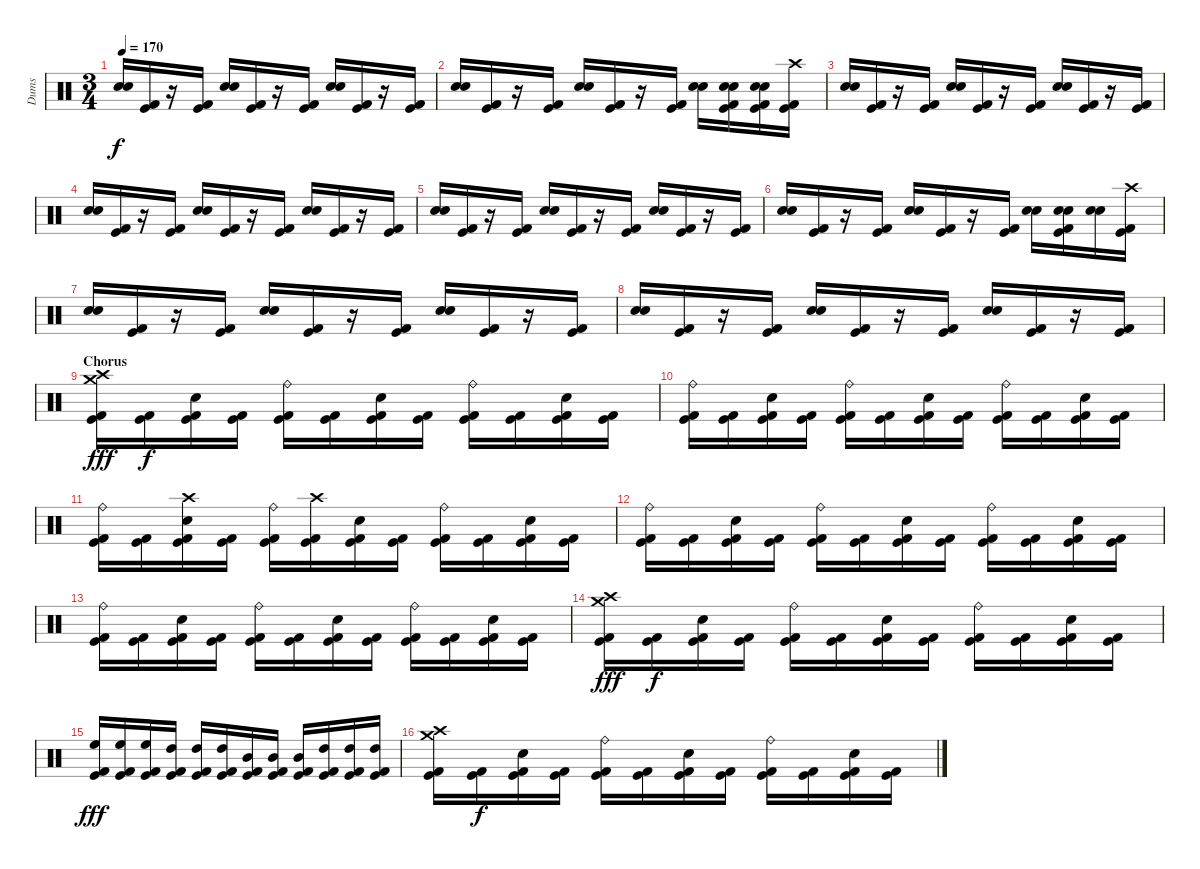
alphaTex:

\track ("Dums" "Dums") {instrument percussion}
\staff {score}
\articulation defaults
\ts (3 4)
\tempo 170
\clef neutral
\ks c
("Snare (hit) 2" "Electric Snare (hit)").16{dy f} ("Kick (hit)" "Kick (hit) 2").16 r.16 ("Kick (hit)" "Kick (hit) 2").16 ("Snare (hit) 2" "Electric Snare (hit)").16 ("Kick (hit)" "Kick (hit) 2").16 r.16 ("Kick (hit)" "Kick (hit) 2").16 ("Snare (hit) 2" "Electric Snare (hit)").16 ("Kick (hit)" "Kick (hit) 2").16 r.16 ("Kick (hit)" "Kick (hit) 2").16 |
("Snare (hit) 2" "Electric Snare (hit)").16 ("Kick (hit)" "Kick (hit) 2").16 r.16 ("Kick (hit)" "Kick (hit) 2").16 ("Snare (hit) 2" "Electric Snare (hit)").16 ("Kick (hit)" "Kick (hit) 2").16 r.16 ("Kick (hit)" "Kick (hit) 2").16 ("Snare (hit) 2" "Electric Snare (hit)").16 ("Snare (hit) 2" "Electric Snare (hit)" "Kick (hit)" "Kick (hit) 2").16 ("Snare (hit) 2" "Electric Snare (hit)" "Kick (hit)" "Kick (hit) 2").16 ("Crash high (hit)" "Kick (hit)" "Kick (hit) 2").16 |
("Snare (hit) 2" "Electric Snare (hit)").16 ("Kick (hit)" "Kick (hit) 2").16 r.16 ("Kick (hit)" "Kick (hit) 2").16 ("Snare (hit) 2" "Electric Snare (hit)").16 ("Kick (hit)" "Kick (hit) 2").16 r.16 ("Kick (hit)" "Kick (hit) 2").16 ("Snare (hit) 2" "Electric Snare (hit)").16 ("Kick (hit)" "Kick (hit) 2").16 r.16 ("Kick (hit)" "Kick (hit) 2").16 |
("Snare (hit) 2" "Electric Snare (hit)").16 ("Kick (hit)" "Kick (hit) 2").16 r.16 ("Kick (hit)" "Kick (hit) 2").16 ("Snare (hit) 2" "Electric Snare (hit)").16 ("Kick (hit)" "Kick (hit) 2").16 r.16 ("Kick (hit)" "Kick (hit) 2").16 ("Snare (hit) 2" "Electric Snare (hit)").16 ("Kick (hit)" "Kick (hit) 2").16 r.16 ("Kick (hit)" "Kick (hit) 2").16 |
("Snare (hit) 2" "Electric Snare (hit)").16 ("Kick (hit)" "Kick (hit) 2").16 r.16 ("Kick (hit)" "Kick (hit) 2").16 ("Snare (hit) 2" "Electric Snare (hit)").16 ("Kick (hit)" "Kick (hit) 2").16 r.16 ("Kick (hit)" "Kick (hit) 2").16 ("Snare (hit) 2" "Electric Snare (hit)").16 ("Kick (hit)" "Kick (hit) 2").16 r.16 ("Kick (hit)" "Kick (hit) 2").16 |
("Snare (hit) 2" "Electric Snare (hit)").16 ("Kick (hit)" "Kick (hit) 2").16 r.16 ("Kick (hit)" "Kick (hit) 2").16 ("Snare (hit) 2" "Electric Snare (hit)").16 ("Kick (hit)" "Kick (hit) 2").16 r.16 ("Kick (hit)" "Kick (hit) 2").16 ("Snare (hit) 2" "Electric Snare (hit)").16 ("Snare (hit) 2" "Electric Snare (hit)" "Kick (hit)" "Kick (hit) 2").16 ("Snare (hit) 2" "Electric Snare (hit)").16 ("Crash high (hit)" "Kick (hit)" "Kick (hit) 2").16 |
("Snare (hit) 2" "Electric Snare (hit)").16 ("Kick (hit)" "Kick (hit) 2").16 r.16 ("Kick (hit)" "Kick (hit) 2").16 ("Snare (hit) 2" "Electric Snare (hit)").16 ("Kick (hit)" "Kick (hit) 2").16 r.16 ("Kick (hit)" "Kick (hit) 2").16 ("Snare (hit) 2" "Electric Snare (hit)").16 ("Kick (hit)" "Kick (hit) 2").16 r.16 ("Kick (hit)" "Kick (hit) 2").16 |
("Snare (hit) 2" "Electric Snare (hit)").16 ("Kick (hit)" "Kick (hit) 2").16 r.16 ("Kick (hit)" "Kick (hit) 2").16 ("Snare (hit) 2" "Electric Snare (hit)").16 ("Kick (hit)" "Kick (hit) 2").16 r.16 ("Kick (hit)" "Kick (hit) 2").16 ("Snare (hit) 2" "Electric Snare (hit)").16 ("Kick (hit)" "Kick (hit) 2").16 r.16 ("Kick (hit)" "Kick (hit) 2").16 |
\section ("" "Chorus")
("Crash high (hit)" "Crash medium (hit)" "Kick (hit)" "Kick (hit) 2").16{dy fff} ("Kick (hit)" "Kick (hit) 2").16{dy f} ("Electric Snare (hit)" "Kick (hit)" "Kick (hit) 2").16 ("Kick (hit)" "Kick (hit) 2").16 ("Ride (bell)" "Kick (hit)" "Kick (hit) 2").16 ("Kick (hit)" "Kick (hit) 2").16 ("Electric Snare (hit)" "Kick (hit)" "Kick (hit) 2").16 ("Kick (hit)" "Kick (hit) 2").16 ("Ride (bell)" "Kick (hit)" "Kick (hit) 2").16 ("Kick (hit)" "Kick (hit) 2").16 ("Electric Snare (hit)" "Kick (hit)" "Kick (hit) 2").16 ("Kick (hit)" "Kick (hit) 2").16 |
("Ride (bell)" "Kick (hit)" "Kick (hit) 2").16 ("Kick (hit)" "Kick (hit) 2").16 ("Electric Snare (hit)" "Kick (hit)" "Kick (hit) 2").16 ("Kick (hit)" "Kick (hit) 2").16 ("Ride (bell)" "Kick (hit)" "Kick (hit) 2").16 ("Kick (hit)" "Kick (hit) 2").16 ("Electric Snare (hit)" "Kick (hit)" "Kick (hit) 2").16 ("Kick (hit)" "Kick (hit) 2").16 ("Ride (bell)" "Kick (hit)" "Kick (hit) 2").16 ("Kick (hit)" "Kick (hit) 2").16 ("Electric Snare (hit)" "Kick (hit)" "Kick (hit) 2").16 ("Kick (hit)" "Kick (hit) 2").16 |
("Ride (bell)" "Kick (hit)" "Kick (hit) 2").16 ("Kick (hit)" "Kick (hit) 2").16 ("Crash high (hit)" "Electric Snare (hit)" "Kick (hit)" "Kick (hit) 2").16 ("Kick (hit)" "Kick (hit) 2").16 ("Ride (bell)" "Kick (hit)" "Kick (hit) 2").16 ("Crash high (hit)" "Kick (hit)" "Kick (hit) 2").16 ("Electric Snare (hit)" "Kick (hit)" "Kick (hit) 2").16 ("Kick (hit)" "Kick (hit) 2").16 ("Ride (bell)" "Kick (hit)" "Kick (hit) 2").16 ("Kick (hit)" "Kick (hit) 2").16 ("Electric Snare (hit)" "Kick (hit)" "Kick (hit) 2").16 ("Kick (hit)" "Kick (hit) 2").16 |
("Ride (bell)" "Kick (hit)" "Kick (hit) 2").16 ("Kick (hit)" "Kick (hit) 2").16 ("Electric Snare (hit)" "Kick (hit)" "Kick (hit) 2").16 ("Kick (hit)" "Kick (hit) 2").16 ("Ride (bell)" "Kick (hit)" "Kick (hit) 2").16 ("Kick (hit)" "Kick (hit) 2").16 ("Electric Snare (hit)" "Kick (hit)" "Kick (hit) 2").16 ("Kick (hit)" "Kick (hit) 2").16 ("Ride (bell)" "Kick (hit)" "Kick (hit) 2").16 ("Kick (hit)" "Kick (hit) 2").16 ("Electric Snare (hit)" "Kick (hit)" "Kick (hit) 2").16 ("Kick (hit)" "Kick (hit) 2").16 |
("Ride (bell)" "Kick (hit)" "Kick (hit) 2").16 ("Kick (hit)" "Kick (hit) 2").16 ("Electric Snare (hit)" "Kick (hit)" "Kick (hit) 2").16 ("Kick (hit)" "Kick (hit) 2").16 ("Ride (bell)" "Kick (hit)" "Kick (hit) 2").16 ("Kick (hit)" "Kick (hit) 2").16 ("Electric Snare (hit)" "Kick (hit)" "Kick (hit) 2").16 ("Kick (hit)" "Kick (hit) 2").16 ("Ride (bell)" "Kick (hit)" "Kick (hit) 2").16 ("Kick (hit)" "Kick (hit) 2").16 ("Electric Snare (hit)" "Kick (hit)" "Kick (hit) 2").16 ("Kick (hit)" "Kick (hit) 2").16 |
("Crash high (hit)" "Crash medium (hit)" "Kick (hit)" "Kick (hit) 2").16{dy fff} ("Kick (hit)" "Kick (hit) 2").16{dy f} ("Electric Snare (hit)" "Kick (hit)" "Kick (hit) 2").16 ("Kick (hit)" "Kick (hit) 2").16 ("Ride (bell)" "Kick (hit)" "Kick (hit) 2").16 ("Kick (hit)" "Kick (hit) 2").16 ("Electric Snare (hit)" "Kick (hit)" "Kick (hit) 2").16 ("Kick (hit)" "Kick (hit) 2").16 ("Ride (bell)" "Kick (hit)" "Kick (hit) 2").16 ("Kick (hit)" "Kick (hit) 2").16 ("Electric Snare (hit)" "Kick (hit)" "Kick (hit) 2").16 ("Kick (hit)" "Kick (hit) 2").16 |
("High Floor Tom (hit)" "Kick (hit)" "Kick (hit) 2").16{dy fff} ("High Floor Tom (hit)" "Kick (hit)" "Kick (hit) 2").16 ("High Floor Tom (hit)" "Kick (hit)" "Kick (hit) 2").16 ("High Tom (hit)" "Kick (hit)" "Kick (hit) 2").16 ("High Tom (hit)" "Kick (hit)" "Kick (hit) 2").16 ("High Tom (hit)" "Kick (hit)" "Kick (hit) 2").16 ("Mid Tom (hit)" "Kick (hit)" "Kick (hit) 2").16 ("Mid Tom (hit)" "Kick (hit)" "Kick (hit) 2").16 ("Mid Tom (hit)" "Kick (hit)" "Kick (hit) 2").16 ("High Tom (hit)" "Kick (hit)" "Kick (hit) 2").16 ("High Tom (hit)" "Kick (hit)" "Kick (hit) 2").16 ("High Tom (hit)" "Kick (hit)" "Kick (hit) 2").16 |
("Crash high (hit)" "Crash medium (hit)" "Kick (hit)" "Kick (hit) 2").16 ("Kick (hit)" "Kick (hit) 2").16{dy f} ("Electric Snare (hit)" "Kick (hit)" "Kick (hit) 2").16 ("Kick (hit)" "Kick (hit) 2").16 ("Ride (bell)" "Kick (hit)" "Kick (hit) 2").16 ("Kick (hit)" "Kick (hit) 2").16 ("Electric Snare (hit)" "Kick (hit)" "Kick (hit) 2").16 ("Kick (hit)" "Kick (hit) 2").16 ("Ride (bell)" "Kick (hit)" "Kick (hit) 2").16 ("Kick (hit)" "Kick (hit) 2").16 ("Electric Snare (hit)" "Kick (hit)" "Kick (hit) 2").16 ("Kick (hit)" "Kick (hit) 2").16
